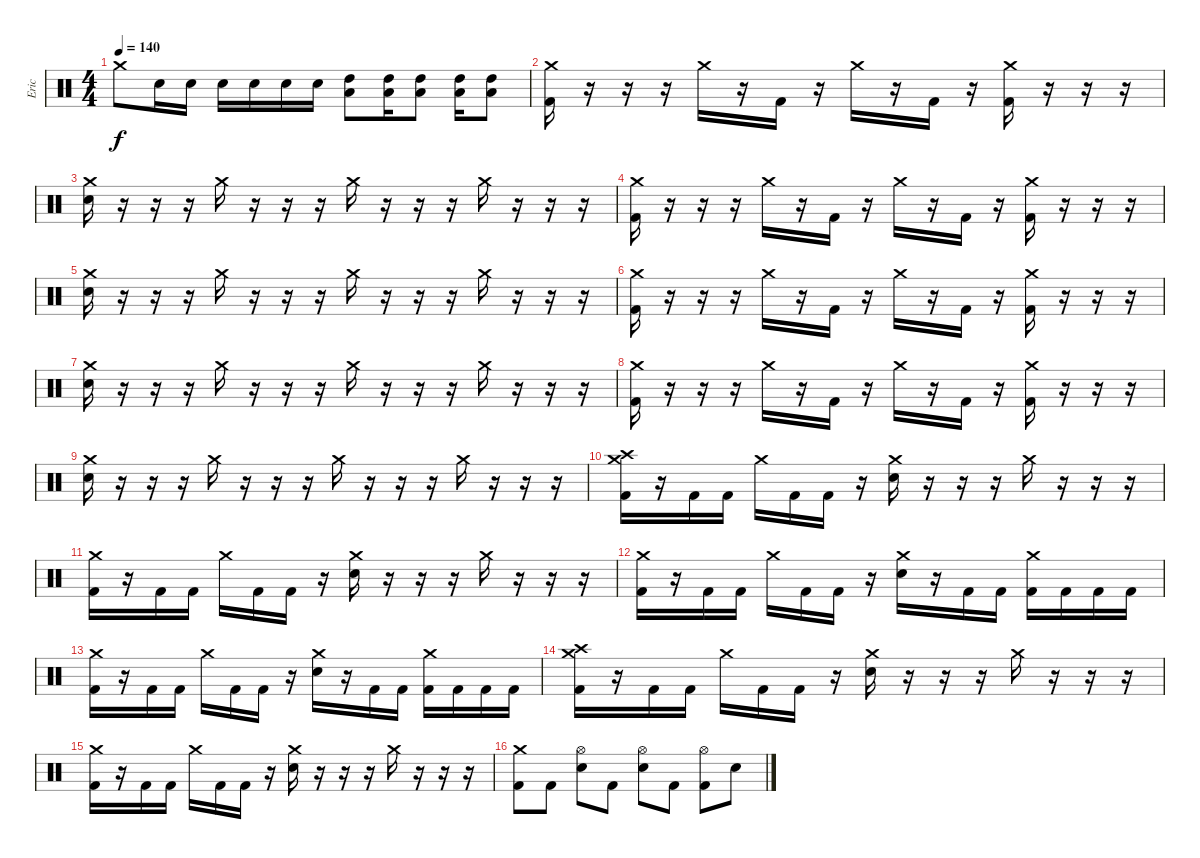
\track ("Eric" "Eric") {instrument percussion}
\staff {score}
\articulation defaults
\ts (4 4)
\tempo 140
\clef neutral
\ks c "Crash medium (hit)".8{dy f} "Electric Snare (hit)".16 "Electric Snare (hit)".16 "Electric Snare (hit)".16 "Electric Snare (hit)".16 "Electric Snare (hit)".16 "Electric Snare (hit)".16
("Low Tom (hit)" "High Tom (hit)").8 ("Low Tom (hit)" "High Tom (hit)").16 ("Low Tom (hit)" "High Tom (hit)").8 ("Low Tom (hit)" "High Tom (hit)").16 ("Low Tom (hit)" "High Tom (hit)").8 |
("Crash medium (hit)" "Kick (hit) 2").16 r.16 r.16 r.16 "Crash medium (hit)".16 r.16 "Kick (hit) 2".16 r.16 "Crash medium (hit)".16 r.16 "Kick (hit) 2".16 r.16 ("Crash medium (hit)" "Kick (hit) 2").16 r.16 r.16 r.16 |
("Crash medium (hit)" "Electric Snare (hit)").16 r.16 r.16 r.16 "Crash medium (hit)".16 r.16 r.16 r.16 "Crash medium (hit)".16 r.16 r.16 r.16 "Crash medium (hit)".16 r.16 r.16 r.16 |
("Crash medium (hit)" "Kick (hit) 2").16 r.16 r.16 r.16 "Crash medium (hit)".16 r.16 "Kick (hit) 2".16 r.16 "Crash medium (hit)".16 r.16 "Kick (hit) 2".16 r.16 ("Crash medium (hit)" "Kick (hit) 2").16 r.16 r.16 r.16 |
("Crash medium (hit)" "Electric Snare (hit)").16 r.16 r.16 r.16 "Crash medium (hit)".16 r.16 r.16 r.16 "Crash medium (hit)".16 r.16 r.16 r.16 "Crash medium (hit)".16 r.16 r.16 r.16 |
("Crash medium (hit)" "Kick (hit) 2").16 r.16 r.16 r.16 "Crash medium (hit)".16 r.16 "Kick (hit) 2".16 r.16 "Crash medium (hit)".16 r.16 "Kick (hit) 2".16 r.16 ("Crash medium (hit)" "Kick (hit) 2").16 r.16 r.16 r.16 |
("Crash medium (hit)" "Electric Snare (hit)").16 r.16 r.16 r.16 "Crash medium (hit)".16 r.16 r.16 r.16 "Crash medium (hit)".16 r.16 r.16 r.16 "Crash medium (hit)".16 r.16 r.16 r.16 |
("Crash medium (hit)" "Kick (hit) 2").16 r.16 r.16 r.16 "Crash medium (hit)".16 r.16 "Kick (hit) 2".16 r.16 "Crash medium (hit)".16 r.16 "Kick (hit) 2".16 r.16 ("Crash medium (hit)" "Kick (hit) 2").16 r.16 r.16 r.16 |
("Crash medium (hit)" "Electric Snare (hit)").16 r.16 r.16 r.16 "Crash medium (hit)".16 r.16 r.16 r.16 "Crash medium (hit)".16 r.16 r.16 r.16 "Crash medium (hit)".16 r.16 r.16 r.16 |
("Crash medium (hit)" "Crash high (hit)" "Kick (hit) 2").16 r.16 "Kick (hit) 2".16 "Kick (hit) 2".16 "Crash medium (hit)".16 "Kick (hit) 2".16 "Kick (hit) 2".16 r.16 ("Crash medium (hit)" "Electric Snare (hit)").16 r.16 r.16 r.16 "Crash medium (hit)".16 r.16 r.16 r.16 |
("Crash medium (hit)" "Kick (hit) 2").16 r.16 "Kick (hit) 2".16 "Kick (hit) 2".16 "Crash medium (hit)".16 "Kick (hit) 2".16 "Kick (hit) 2".16 r.16 ("Crash medium (hit)" "Electric Snare (hit)").16 r.16 r.16 r.16 "Crash medium (hit)".16 r.16 r.16 r.16 |
("Crash medium (hit)" "Kick (hit) 2").16 r.16 "Kick (hit) 2".16 "Kick (hit) 2".16 "Crash medium (hit)".16 "Kick (hit) 2".16 "Kick (hit) 2".16 r.16 ("Crash medium (hit)" "Electric Snare (hit)").16 r.16 "Kick (hit) 2".16 "Kick (hit) 2".16 ("Crash medium (hit)" "Kick (hit) 2").16 "Kick (hit) 2".16 "Kick (hit) 2".16 "Kick (hit) 2".16 |
("Crash medium (hit)" "Kick (hit) 2").16 r.16 "Kick (hit) 2".16 "Kick (hit) 2".16 "Crash medium (hit)".16 "Kick (hit) 2".16 "Kick (hit) 2".16 r.16 ("Crash medium (hit)" "Electric Snare (hit)").16 r.16 "Kick (hit) 2".16 "Kick (hit) 2".16 ("Crash medium (hit)" "Kick (hit) 2").16 "Kick (hit) 2".16 "Kick (hit) 2".16 "Kick (hit) 2".16 |
("Crash medium (hit)" "Crash high (hit)" "Kick (hit) 2").16 r.16 "Kick (hit) 2".16 "Kick (hit) 2".16 "Crash medium (hit)".16 "Kick (hit) 2".16 "Kick (hit) 2".16 r.16 ("Crash medium (hit)" "Electric Snare (hit)").16 r.16 r.16 r.16 "Crash medium (hit)".16 r.16 r.16 r.16 |
("Crash medium (hit)" "Kick (hit) 2").16 r.16 "Kick (hit) 2".16 "Kick (hit) 2".16 "Crash medium (hit)".16 "Kick (hit) 2".16 "Kick (hit) 2".16 r.16 ("Crash medium (hit)" "Electric Snare (hit)").16 r.16 r.16 r.16 "Crash medium (hit)".16 r.16 r.16 r.16 |
("Crash medium (hit)" "Kick (hit) 2").8 "Kick (hit) 2".8 ("Hi-Hat (open)" "Electric Snare (hit)").8 "Kick (hit) 2".8 ("Hi-Hat (open)" "Electric Snare (hit)").8 "Kick (hit) 2".8 ("Hi-Hat (open)" "Kick (hit) 2").8 "Electric Snare (hit)".8
